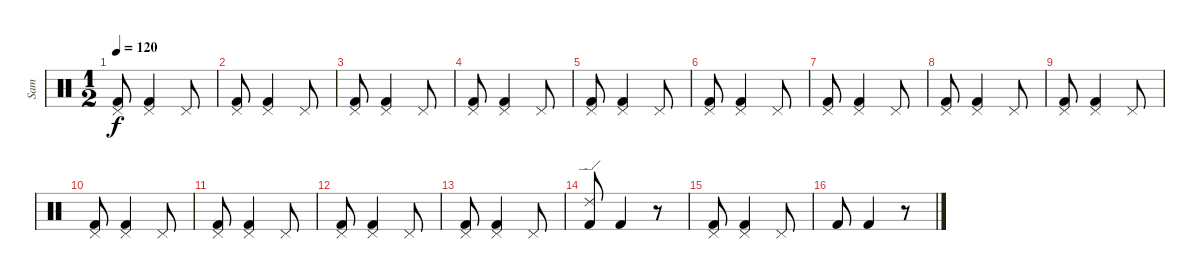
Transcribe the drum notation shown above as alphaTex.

\track ("Sam" "Sam") {instrument percussion}
\staff {score}
\articulation defaults
\ts (1 2)
\tempo 120
\clef neutral
\ks c
("Pedal Hi-Hat (hit)" "Kick (hit) 2").8{dy f} ("Pedal Hi-Hat (hit)" "Kick (hit) 2").4 "Pedal Hi-Hat (hit)".8 |
("Pedal Hi-Hat (hit)" "Kick (hit) 2").8 ("Pedal Hi-Hat (hit)" "Kick (hit) 2").4 "Pedal Hi-Hat (hit)".8 |
("Pedal Hi-Hat (hit)" "Kick (hit) 2").8 ("Pedal Hi-Hat (hit)" "Kick (hit) 2").4 "Pedal Hi-Hat (hit)".8 |
("Pedal Hi-Hat (hit)" "Kick (hit) 2").8 ("Pedal Hi-Hat (hit)" "Kick (hit) 2").4 "Pedal Hi-Hat (hit)".8 |
("Pedal Hi-Hat (hit)" "Kick (hit) 2").8 ("Pedal Hi-Hat (hit)" "Kick (hit) 2").4 "Pedal Hi-Hat (hit)".8 |
("Pedal Hi-Hat (hit)" "Kick (hit) 2").8 ("Pedal Hi-Hat (hit)" "Kick (hit) 2").4 "Pedal Hi-Hat (hit)".8 |
("Pedal Hi-Hat (hit)" "Kick (hit) 2").8 ("Pedal Hi-Hat (hit)" "Kick (hit) 2").4 "Pedal Hi-Hat (hit)".8 |
("Pedal Hi-Hat (hit)" "Kick (hit) 2").8 ("Pedal Hi-Hat (hit)" "Kick (hit) 2").4 "Pedal Hi-Hat (hit)".8 |
("Pedal Hi-Hat (hit)" "Kick (hit) 2").8 ("Pedal Hi-Hat (hit)" "Kick (hit) 2").4 "Pedal Hi-Hat (hit)".8 |
("Pedal Hi-Hat (hit)" "Kick (hit) 2").8 ("Pedal Hi-Hat (hit)" "Kick (hit) 2").4 "Pedal Hi-Hat (hit)".8 |
("Pedal Hi-Hat (hit)" "Kick (hit) 2").8 ("Pedal Hi-Hat (hit)" "Kick (hit) 2").4 "Pedal Hi-Hat (hit)".8 |
("Pedal Hi-Hat (hit)" "Kick (hit) 2").8 ("Pedal Hi-Hat (hit)" "Kick (hit) 2").4 "Pedal Hi-Hat (hit)".8 |
("Pedal Hi-Hat (hit)" "Kick (hit) 2").8 ("Pedal Hi-Hat (hit)" "Kick (hit) 2").4 "Pedal Hi-Hat (hit)".8 |
("Ride (edge) 2" "Kick (hit) 2").8 "Kick (hit) 2".4 r.8 |
("Pedal Hi-Hat (hit)" "Kick (hit) 2").8 ("Pedal Hi-Hat (hit)" "Kick (hit) 2").4 "Pedal Hi-Hat (hit)".8 |
"Kick (hit) 2".8 "Kick (hit) 2".4 r.8
